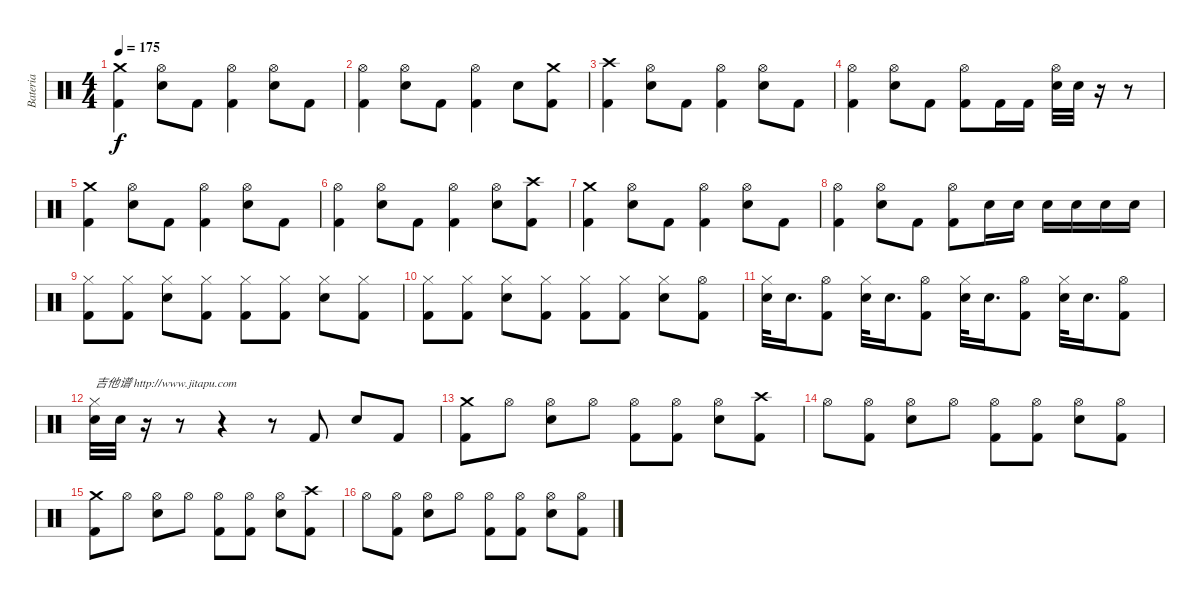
\track ("Bateria" "Bateria") {instrument percussion}
\staff {score}
\articulation defaults
\ts (4 4)
\tempo 175
\clef neutral
\ks c
("Kick (hit) 2" "Crash medium (hit)").4{dy f} ("Snare (hit) 2" "Hi-Hat (open)").8 "Kick (hit) 2".8 ("Kick (hit) 2" "Hi-Hat (open)").4 ("Snare (hit) 2" "Hi-Hat (open)").8 "Kick (hit) 2".8 |
("Kick (hit) 2" "Hi-Hat (open)").4 ("Snare (hit) 2" "Hi-Hat (open)").8 "Kick (hit) 2".8 ("Kick (hit) 2" "Hi-Hat (open)").4 "Snare (hit) 2".8 ("Kick (hit) 2" "Crash medium (hit)").8 |
("Kick (hit) 2" "Crash high (hit)").4 ("Snare (hit) 2" "Hi-Hat (open)").8 "Kick (hit) 2".8 ("Kick (hit) 2" "Hi-Hat (open)").4 ("Snare (hit) 2" "Hi-Hat (open)").8 "Kick (hit) 2".8 |
("Kick (hit) 2" "Hi-Hat (open)").4 ("Snare (hit) 2" "Hi-Hat (open)").8 "Kick (hit) 2".8 ("Kick (hit) 2" "Hi-Hat (open)").8 "Kick (hit) 2".16 "Kick (hit) 2".16 ("Snare (hit) 2" "Hi-Hat (open)").32 "Snare (hit) 2".32 r.16 r.8 |
("Kick (hit) 2" "Crash medium (hit)").4 ("Snare (hit) 2" "Hi-Hat (open)").8 "Kick (hit) 2".8 ("Kick (hit) 2" "Hi-Hat (open)").4 ("Snare (hit) 2" "Hi-Hat (open)").8 "Kick (hit) 2".8 |
("Kick (hit) 2" "Hi-Hat (open)").4 ("Snare (hit) 2" "Hi-Hat (open)").8 "Kick (hit) 2".8 ("Kick (hit) 2" "Hi-Hat (open)").4 ("Snare (hit) 2" "Hi-Hat (open)").8 ("Kick (hit) 2" "Crash high (hit)").8 |
("Kick (hit) 2" "Crash medium (hit)").4 ("Snare (hit) 2" "Hi-Hat (open)").8 "Kick (hit) 2".8 ("Kick (hit) 2" "Hi-Hat (open)").4 ("Snare (hit) 2" "Hi-Hat (open)").8 "Kick (hit) 2".8 |
("Kick (hit) 2" "Hi-Hat (open)").4 ("Snare (hit) 2" "Hi-Hat (open)").8 "Kick (hit) 2".8 ("Kick (hit) 2" "Hi-Hat (open)").8 "Snare (hit) 2".16 "Snare (hit) 2".16 "Snare (hit) 2".16 "Snare (hit) 2".16 "Snare (hit) 2".16 "Snare (hit) 2".16 |
("Kick (hit) 2" "Hi-Hat (closed)").8 ("Kick (hit) 2" "Hi-Hat (closed)").8 ("Snare (hit) 2" "Hi-Hat (closed)").8 ("Kick (hit) 2" "Hi-Hat (closed)").8 ("Kick (hit) 2" "Hi-Hat (closed)").8 ("Kick (hit) 2" "Hi-Hat (closed)").8 ("Snare (hit) 2" "Hi-Hat (closed)").8 ("Kick (hit) 2" "Hi-Hat (closed)").8 |
("Kick (hit) 2" "Hi-Hat (closed)").8 ("Kick (hit) 2" "Hi-Hat (closed)").8 ("Snare (hit) 2" "Hi-Hat (closed)").8 ("Kick (hit) 2" "Hi-Hat (closed)").8 ("Kick (hit) 2" "Hi-Hat (closed)").8 ("Kick (hit) 2" "Hi-Hat (closed)").8 ("Snare (hit) 2" "Hi-Hat (closed)").8 ("Kick (hit) 2" "Hi-Hat (open)").8 |
("Snare (hit) 2" "Hi-Hat (closed)").32 "Snare (hit) 2".16{d} ("Kick (hit) 2" "Hi-Hat (open)").8 ("Snare (hit) 2" "Hi-Hat (closed)").32 "Snare (hit) 2".16{d} ("Kick (hit) 2" "Hi-Hat (open)").8 ("Snare (hit) 2" "Hi-Hat (closed)").32 "Snare (hit) 2".16{d} ("Kick (hit) 2" "Hi-Hat (open)").8 ("Snare (hit) 2" "Hi-Hat (closed)").32 "Snare (hit) 2".16{d} ("Kick (hit) 2" "Hi-Hat (open)").8 |
("Snare (hit) 2" "Hi-Hat (closed)").32{txt "吉他谱 http://www.jitapu.com"} "Snare (hit) 2".32 r.16 r.8 r.4 r.8 "Kick (hit) 2".8 "Snare (hit) 2".8 "Kick (hit) 2".8 |
("Kick (hit) 2" "Crash medium (hit)").8 "Hi-Hat (open)".8 ("Snare (hit) 2" "Hi-Hat (open)").8 "Hi-Hat (open)".8 ("Kick (hit) 2" "Hi-Hat (open)").8 ("Kick (hit) 2" "Hi-Hat (open)").8 ("Snare (hit) 2" "Hi-Hat (open)").8 ("Kick (hit) 2" "Crash high (hit)").8 |
"Hi-Hat (open)".8 ("Kick (hit) 2" "Hi-Hat (open)").8 ("Snare (hit) 2" "Hi-Hat (open)").8 "Hi-Hat (open)".8 ("Kick (hit) 2" "Hi-Hat (open)").8 ("Kick (hit) 2" "Hi-Hat (open)").8 ("Snare (hit) 2" "Hi-Hat (open)").8 ("Kick (hit) 2" "Hi-Hat (open)").8 |
("Kick (hit) 2" "Crash medium (hit)").8 "Hi-Hat (open)".8 ("Snare (hit) 2" "Hi-Hat (open)").8 "Hi-Hat (open)".8 ("Kick (hit) 2" "Hi-Hat (open)").8 ("Kick (hit) 2" "Hi-Hat (open)").8 ("Snare (hit) 2" "Hi-Hat (open)").8 ("Kick (hit) 2" "Crash high (hit)").8 |
"Hi-Hat (open)".8 ("Kick (hit) 2" "Hi-Hat (open)").8 ("Snare (hit) 2" "Hi-Hat (open)").8 "Hi-Hat (open)".8 ("Kick (hit) 2" "Hi-Hat (open)").8 ("Kick (hit) 2" "Hi-Hat (open)").8 ("Snare (hit) 2" "Hi-Hat (open)").8 ("Kick (hit) 2" "Hi-Hat (open)").8
